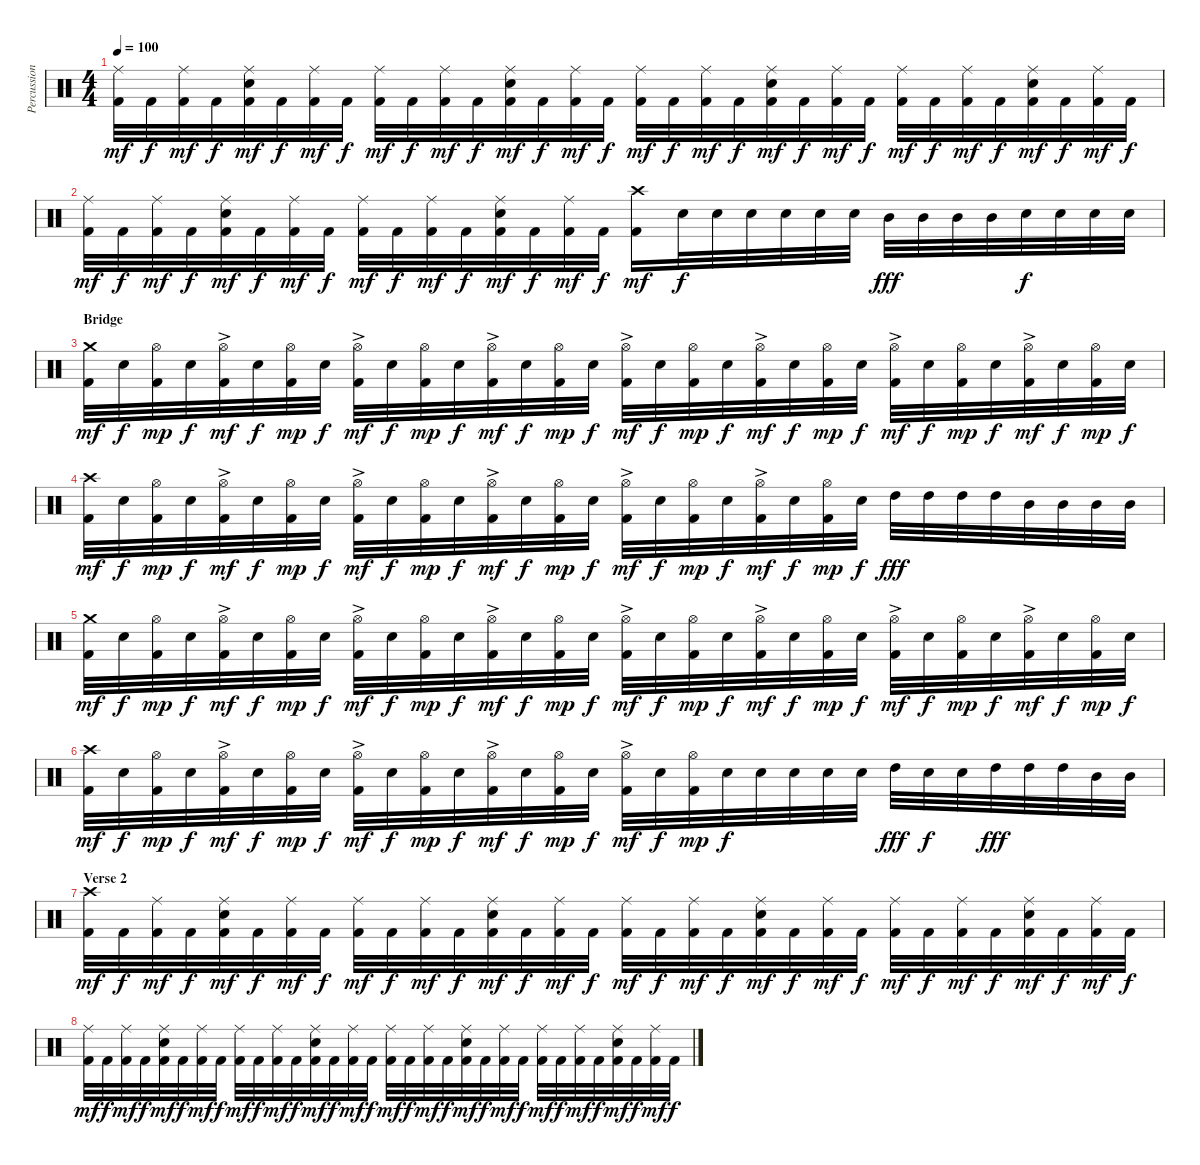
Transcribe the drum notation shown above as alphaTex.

\track ("Percussion" "Percussion") {instrument percussion}
\staff {score}
\articulation defaults
\ts (4 4)
\tempo 100
\clef neutral
\ks c
("Ride (middle)" "Kick (hit) 2").32{dy mf} "Kick (hit) 2".32{dy f} ("Ride (middle)" "Kick (hit) 2").32{dy mf} "Kick (hit) 2".32{dy f} ("Ride (middle)" "Electric Snare (hit)" "Kick (hit) 2").32{dy mf} "Kick (hit) 2".32{dy f} ("Ride (middle)" "Kick (hit) 2").32{dy mf} "Kick (hit) 2".32{dy f} ("Ride (middle)" "Kick (hit) 2").32{dy mf} "Kick (hit) 2".32{dy f} ("Ride (middle)" "Kick (hit) 2").32{dy mf} "Kick (hit) 2".32{dy f} ("Ride (middle)" "Electric Snare (hit)" "Kick (hit) 2").32{dy mf} "Kick (hit) 2".32{dy f} ("Ride (middle)" "Kick (hit) 2").32{dy mf} "Kick (hit) 2".32{dy f} ("Ride (middle)" "Kick (hit) 2").32{dy mf} "Kick (hit) 2".32{dy f} ("Ride (middle)" "Kick (hit) 2").32{dy mf} "Kick (hit) 2".32{dy f} ("Ride (middle)" "Electric Snare (hit)" "Kick (hit) 2").32{dy mf} "Kick (hit) 2".32{dy f} ("Ride (middle)" "Kick (hit) 2").32{dy mf} "Kick (hit) 2".32{dy f} ("Ride (middle)" "Kick (hit) 2").32{dy mf} "Kick (hit) 2".32{dy f} ("Ride (middle)" "Kick (hit) 2").32{dy mf} "Kick (hit) 2".32{dy f} ("Ride (middle)" "Electric Snare (hit)" "Kick (hit) 2").32{dy mf} "Kick (hit) 2".32{dy f} ("Ride (middle)" "Kick (hit) 2").32{dy mf} "Kick (hit) 2".32{dy f} |
("Ride (middle)" "Kick (hit) 2").32{dy mf} "Kick (hit) 2".32{dy f} ("Ride (middle)" "Kick (hit) 2").32{dy mf} "Kick (hit) 2".32{dy f} ("Ride (middle)" "Electric Snare (hit)" "Kick (hit) 2").32{dy mf} "Kick (hit) 2".32{dy f} ("Ride (middle)" "Kick (hit) 2").32{dy mf} "Kick (hit) 2".32{dy f} ("Ride (middle)" "Kick (hit) 2").32{dy mf} "Kick (hit) 2".32{dy f} ("Ride (middle)" "Kick (hit) 2").32{dy mf} "Kick (hit) 2".32{dy f} ("Ride (middle)" "Electric Snare (hit)" "Kick (hit) 2").32{dy mf} "Kick (hit) 2".32{dy f} ("Ride (middle)" "Kick (hit) 2").32{dy mf} "Kick (hit) 2".32{dy f} ("Crash high (hit)" "Kick (hit) 2").16{dy mf} "Electric Snare (hit)".32{dy f} "Electric Snare (hit)".32 "Electric Snare (hit)".32 "Electric Snare (hit)".32 "Electric Snare (hit)".32 "Electric Snare (hit)".32 "Mid Tom (hit)".32{dy fff} "Mid Tom (hit)".32 "Mid Tom (hit)".32 "Mid Tom (hit)".32 "Electric Snare (hit)".32{dy f} "Electric Snare (hit)".32 "Electric Snare (hit)".32 "Electric Snare (hit)".32 |
\section ("" "Bridge")
("Crash medium (hit)" "Kick (hit) 2").32{dy mf} "Electric Snare (hit)".32{dy f} ("Hi-Hat (open)" "Kick (hit) 2").32{dy mp} "Electric Snare (hit)".32{dy f} ("Hi-Hat (open)"{ac} "Kick (hit) 2").32{dy mf} "Electric Snare (hit)".32{dy f} ("Hi-Hat (open)" "Kick (hit) 2").32{dy mp} "Electric Snare (hit)".32{dy f} ("Hi-Hat (open)"{ac} "Kick (hit) 2").32{dy mf} "Electric Snare (hit)".32{dy f} ("Hi-Hat (open)" "Kick (hit) 2").32{dy mp} "Electric Snare (hit)".32{dy f} ("Hi-Hat (open)"{ac} "Kick (hit) 2").32{dy mf} "Electric Snare (hit)".32{dy f} ("Hi-Hat (open)" "Kick (hit) 2").32{dy mp} "Electric Snare (hit)".32{dy f} ("Hi-Hat (open)"{ac} "Kick (hit) 2").32{dy mf} "Electric Snare (hit)".32{dy f} ("Hi-Hat (open)" "Kick (hit) 2").32{dy mp} "Electric Snare (hit)".32{dy f} ("Hi-Hat (open)"{ac} "Kick (hit) 2").32{dy mf} "Electric Snare (hit)".32{dy f} ("Hi-Hat (open)" "Kick (hit) 2").32{dy mp} "Electric Snare (hit)".32{dy f} ("Hi-Hat (open)"{ac} "Kick (hit) 2").32{dy mf} "Electric Snare (hit)".32{dy f} ("Hi-Hat (open)" "Kick (hit) 2").32{dy mp} "Electric Snare (hit)".32{dy f} ("Hi-Hat (open)"{ac} "Kick (hit) 2").32{dy mf} "Electric Snare (hit)".32{dy f} ("Hi-Hat (open)" "Kick (hit) 2").32{dy mp} "Electric Snare (hit)".32{dy f} |
("Crash high (hit)" "Kick (hit) 2").32{dy mf} "Electric Snare (hit)".32{dy f} ("Hi-Hat (open)" "Kick (hit) 2").32{dy mp} "Electric Snare (hit)".32{dy f} ("Hi-Hat (open)"{ac} "Kick (hit) 2").32{dy mf} "Electric Snare (hit)".32{dy f} ("Hi-Hat (open)" "Kick (hit) 2").32{dy mp} "Electric Snare (hit)".32{dy f} ("Hi-Hat (open)"{ac} "Kick (hit) 2").32{dy mf} "Electric Snare (hit)".32{dy f} ("Hi-Hat (open)" "Kick (hit) 2").32{dy mp} "Electric Snare (hit)".32{dy f} ("Hi-Hat (open)"{ac} "Kick (hit) 2").32{dy mf} "Electric Snare (hit)".32{dy f} ("Hi-Hat (open)" "Kick (hit) 2").32{dy mp} "Electric Snare (hit)".32{dy f} ("Hi-Hat (open)"{ac} "Kick (hit) 2").32{dy mf} "Electric Snare (hit)".32{dy f} ("Hi-Hat (open)" "Kick (hit) 2").32{dy mp} "Electric Snare (hit)".32{dy f} ("Hi-Hat (open)"{ac} "Kick (hit) 2").32{dy mf} "Electric Snare (hit)".32{dy f} ("Hi-Hat (open)" "Kick (hit) 2").32{dy mp} "Electric Snare (hit)".32{dy f} "High Tom (hit)".32{dy fff} "High Tom (hit)".32 "High Tom (hit)".32 "High Tom (hit)".32 "Mid Tom (hit)".32 "Mid Tom (hit)".32 "Mid Tom (hit)".32 "Mid Tom (hit)".32 |
("Crash medium (hit)" "Kick (hit) 2").32{dy mf} "Electric Snare (hit)".32{dy f} ("Hi-Hat (open)" "Kick (hit) 2").32{dy mp} "Electric Snare (hit)".32{dy f} ("Hi-Hat (open)"{ac} "Kick (hit) 2").32{dy mf} "Electric Snare (hit)".32{dy f} ("Hi-Hat (open)" "Kick (hit) 2").32{dy mp} "Electric Snare (hit)".32{dy f} ("Hi-Hat (open)"{ac} "Kick (hit) 2").32{dy mf} "Electric Snare (hit)".32{dy f} ("Hi-Hat (open)" "Kick (hit) 2").32{dy mp} "Electric Snare (hit)".32{dy f} ("Hi-Hat (open)"{ac} "Kick (hit) 2").32{dy mf} "Electric Snare (hit)".32{dy f} ("Hi-Hat (open)" "Kick (hit) 2").32{dy mp} "Electric Snare (hit)".32{dy f} ("Hi-Hat (open)"{ac} "Kick (hit) 2").32{dy mf} "Electric Snare (hit)".32{dy f} ("Hi-Hat (open)" "Kick (hit) 2").32{dy mp} "Electric Snare (hit)".32{dy f} ("Hi-Hat (open)"{ac} "Kick (hit) 2").32{dy mf} "Electric Snare (hit)".32{dy f} ("Hi-Hat (open)" "Kick (hit) 2").32{dy mp} "Electric Snare (hit)".32{dy f} ("Hi-Hat (open)"{ac} "Kick (hit) 2").32{dy mf} "Electric Snare (hit)".32{dy f} ("Hi-Hat (open)" "Kick (hit) 2").32{dy mp} "Electric Snare (hit)".32{dy f} ("Hi-Hat (open)"{ac} "Kick (hit) 2").32{dy mf} "Electric Snare (hit)".32{dy f} ("Hi-Hat (open)" "Kick (hit) 2").32{dy mp} "Electric Snare (hit)".32{dy f} |
("Crash high (hit)" "Kick (hit) 2").32{dy mf} "Electric Snare (hit)".32{dy f} ("Hi-Hat (open)" "Kick (hit) 2").32{dy mp} "Electric Snare (hit)".32{dy f} ("Hi-Hat (open)"{ac} "Kick (hit) 2").32{dy mf} "Electric Snare (hit)".32{dy f} ("Hi-Hat (open)" "Kick (hit) 2").32{dy mp} "Electric Snare (hit)".32{dy f} ("Hi-Hat (open)"{ac} "Kick (hit) 2").32{dy mf} "Electric Snare (hit)".32{dy f} ("Hi-Hat (open)" "Kick (hit) 2").32{dy mp} "Electric Snare (hit)".32{dy f} ("Hi-Hat (open)"{ac} "Kick (hit) 2").32{dy mf} "Electric Snare (hit)".32{dy f} ("Hi-Hat (open)" "Kick (hit) 2").32{dy mp} "Electric Snare (hit)".32{dy f} ("Hi-Hat (open)"{ac} "Kick (hit) 2").32{dy mf} "Electric Snare (hit)".32{dy f} ("Hi-Hat (open)" "Kick (hit) 2").32{dy mp} "Electric Snare (hit)".32{dy f} "Electric Snare (hit)".32 "Electric Snare (hit)".32 "Electric Snare (hit)".32 "Electric Snare (hit)".32 "High Tom (hit)".32{dy fff} "Electric Snare (hit)".32{dy f} "Electric Snare (hit)".32 "High Tom (hit)".32{dy fff} "High Tom (hit)".32 "High Tom (hit)".32 "Mid Tom (hit)".32 "Mid Tom (hit)".32 |
\section ("" "Verse 2")
("Crash high (hit)" "Kick (hit) 2").32{dy mf} "Kick (hit) 2".32{dy f} ("Ride (middle)" "Kick (hit) 2").32{dy mf} "Kick (hit) 2".32{dy f} ("Ride (middle)" "Electric Snare (hit)" "Kick (hit) 2").32{dy mf} "Kick (hit) 2".32{dy f} ("Ride (middle)" "Kick (hit) 2").32{dy mf} "Kick (hit) 2".32{dy f} ("Ride (middle)" "Kick (hit) 2").32{dy mf} "Kick (hit) 2".32{dy f} ("Ride (middle)" "Kick (hit) 2").32{dy mf} "Kick (hit) 2".32{dy f} ("Ride (middle)" "Electric Snare (hit)" "Kick (hit) 2").32{dy mf} "Kick (hit) 2".32{dy f} ("Ride (middle)" "Kick (hit) 2").32{dy mf} "Kick (hit) 2".32{dy f} ("Ride (middle)" "Kick (hit) 2").32{dy mf} "Kick (hit) 2".32{dy f} ("Ride (middle)" "Kick (hit) 2").32{dy mf} "Kick (hit) 2".32{dy f} ("Ride (middle)" "Electric Snare (hit)" "Kick (hit) 2").32{dy mf} "Kick (hit) 2".32{dy f} ("Ride (middle)" "Kick (hit) 2").32{dy mf} "Kick (hit) 2".32{dy f} ("Ride (middle)" "Kick (hit) 2").32{dy mf} "Kick (hit) 2".32{dy f} ("Ride (middle)" "Kick (hit) 2").32{dy mf} "Kick (hit) 2".32{dy f} ("Ride (middle)" "Electric Snare (hit)" "Kick (hit) 2").32{dy mf} "Kick (hit) 2".32{dy f} ("Ride (middle)" "Kick (hit) 2").32{dy mf} "Kick (hit) 2".32{dy f} |
("Ride (middle)" "Kick (hit) 2").32{dy mf} "Kick (hit) 2".32{dy f} ("Ride (middle)" "Kick (hit) 2").32{dy mf} "Kick (hit) 2".32{dy f} ("Ride (middle)" "Electric Snare (hit)" "Kick (hit) 2").32{dy mf} "Kick (hit) 2".32{dy f} ("Ride (middle)" "Kick (hit) 2").32{dy mf} "Kick (hit) 2".32{dy f} ("Ride (middle)" "Kick (hit) 2").32{dy mf} "Kick (hit) 2".32{dy f} ("Ride (middle)" "Kick (hit) 2").32{dy mf} "Kick (hit) 2".32{dy f} ("Ride (middle)" "Electric Snare (hit)" "Kick (hit) 2").32{dy mf} "Kick (hit) 2".32{dy f} ("Ride (middle)" "Kick (hit) 2").32{dy mf} "Kick (hit) 2".32{dy f} ("Ride (middle)" "Kick (hit) 2").32{dy mf} "Kick (hit) 2".32{dy f} ("Ride (middle)" "Kick (hit) 2").32{dy mf} "Kick (hit) 2".32{dy f} ("Ride (middle)" "Electric Snare (hit)" "Kick (hit) 2").32{dy mf} "Kick (hit) 2".32{dy f} ("Ride (middle)" "Kick (hit) 2").32{dy mf} "Kick (hit) 2".32{dy f} ("Ride (middle)" "Kick (hit) 2").32{dy mf} "Kick (hit) 2".32{dy f} ("Ride (middle)" "Kick (hit) 2").32{dy mf} "Kick (hit) 2".32{dy f} ("Ride (middle)" "Electric Snare (hit)" "Kick (hit) 2").32{dy mf} "Kick (hit) 2".32{dy f} ("Ride (middle)" "Kick (hit) 2").32{dy mf} "Kick (hit) 2".32{dy f}
